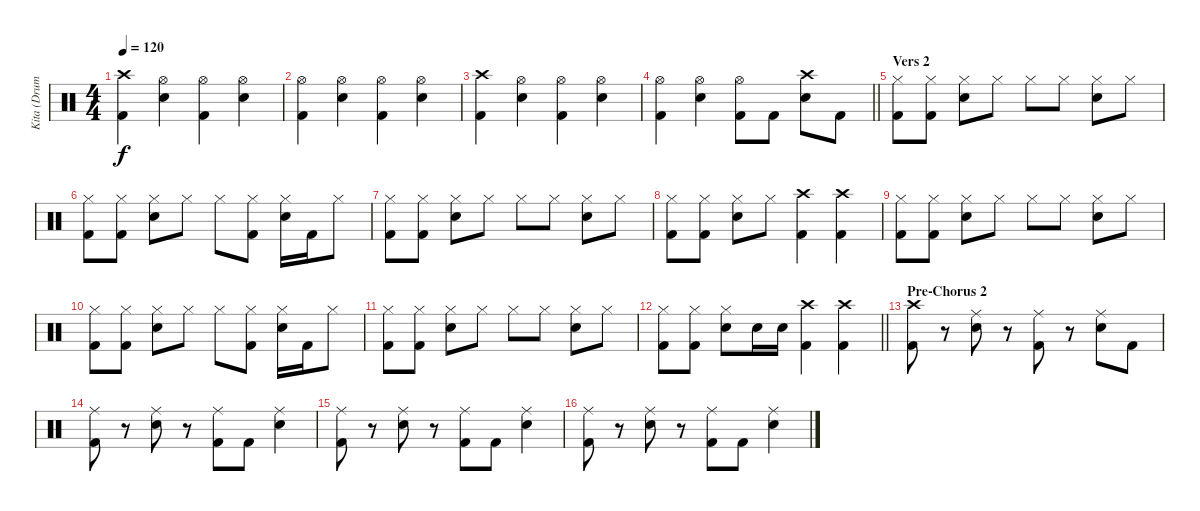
\track ("Kita (Drums)" "Kita (Drum") {instrument percussion}
\staff {score}
\articulation defaults
\ts (4 4)
\tempo 120
\clef neutral
\ks c
("Crash high (hit)" "Kick (hit) 2").4{dy f} ("Hi-Hat (open)" "Snare (hit) 2").4 ("Hi-Hat (open)" "Kick (hit) 2").4 ("Hi-Hat (open)" "Snare (hit) 2").4 |
("Hi-Hat (open)" "Kick (hit) 2").4 ("Hi-Hat (open)" "Snare (hit) 2").4 ("Hi-Hat (open)" "Kick (hit) 2").4 ("Hi-Hat (open)" "Snare (hit) 2").4 |
("Crash high (hit)" "Kick (hit) 2").4 ("Hi-Hat (open)" "Snare (hit) 2").4 ("Hi-Hat (open)" "Kick (hit) 2").4 ("Hi-Hat (open)" "Snare (hit) 2").4 |
\barLineRight lightlight
("Hi-Hat (open)" "Kick (hit) 2").4 ("Hi-Hat (open)" "Snare (hit) 2").4 ("Hi-Hat (open)" "Kick (hit) 2").8 "Kick (hit) 2".8 ("Snare (hit) 2" "Crash high (hit)").8 "Kick (hit) 2".8 |
\section ("" "Vers 2")
("Hi-Hat (closed)" "Kick (hit) 2").8 ("Hi-Hat (closed)" "Kick (hit) 2").8 ("Hi-Hat (closed)" "Snare (hit) 2").8 "Hi-Hat (closed)".8 "Hi-Hat (closed)".8 "Hi-Hat (closed)".8 ("Hi-Hat (closed)" "Snare (hit) 2").8 "Hi-Hat (closed)".8 |
("Hi-Hat (closed)" "Kick (hit) 2").8 ("Hi-Hat (closed)" "Kick (hit) 2").8 ("Hi-Hat (closed)" "Snare (hit) 2").8 "Hi-Hat (closed)".8 "Hi-Hat (closed)".8 ("Hi-Hat (closed)" "Kick (hit) 2").8 ("Hi-Hat (closed)" "Snare (hit) 2").16 "Kick (hit) 2".16 "Hi-Hat (closed)".8 |
("Hi-Hat (closed)" "Kick (hit) 2").8 ("Hi-Hat (closed)" "Kick (hit) 2").8 ("Hi-Hat (closed)" "Snare (hit) 2").8 "Hi-Hat (closed)".8 "Hi-Hat (closed)".8 "Hi-Hat (closed)".8 ("Hi-Hat (closed)" "Snare (hit) 2").8 "Hi-Hat (closed)".8 |
("Hi-Hat (closed)" "Kick (hit) 2").8 ("Hi-Hat (closed)" "Kick (hit) 2").8 ("Hi-Hat (closed)" "Snare (hit) 2").8 "Hi-Hat (closed)".8 ("Kick (hit) 2" "Crash high (hit)").4 ("Kick (hit) 2" "Crash high (hit)").4 |
("Hi-Hat (closed)" "Kick (hit) 2").8 ("Hi-Hat (closed)" "Kick (hit) 2").8 ("Hi-Hat (closed)" "Snare (hit) 2").8 "Hi-Hat (closed)".8 "Hi-Hat (closed)".8 "Hi-Hat (closed)".8 ("Hi-Hat (closed)" "Snare (hit) 2").8 "Hi-Hat (closed)".8 |
("Hi-Hat (closed)" "Kick (hit) 2").8 ("Hi-Hat (closed)" "Kick (hit) 2").8 ("Hi-Hat (closed)" "Snare (hit) 2").8 "Hi-Hat (closed)".8 "Hi-Hat (closed)".8 ("Hi-Hat (closed)" "Kick (hit) 2").8 ("Hi-Hat (closed)" "Snare (hit) 2").16 "Kick (hit) 2".16 "Hi-Hat (closed)".8 |
("Hi-Hat (closed)" "Kick (hit) 2").8 ("Hi-Hat (closed)" "Kick (hit) 2").8 ("Hi-Hat (closed)" "Snare (hit) 2").8 "Hi-Hat (closed)".8 "Hi-Hat (closed)".8 "Hi-Hat (closed)".8 ("Hi-Hat (closed)" "Snare (hit) 2").8 "Hi-Hat (closed)".8 |
\barLineRight lightlight
("Hi-Hat (closed)" "Kick (hit) 2").8 ("Hi-Hat (closed)" "Kick (hit) 2").8 ("Hi-Hat (closed)" "Snare (hit) 2").8 "Snare (hit) 2".16 "Snare (hit) 2".16 ("Kick (hit) 2" "Crash high (hit)").4 ("Kick (hit) 2" "Crash high (hit)").4 |
\section ("" "Pre-Chorus 2")
("Crash high (hit)" "Kick (hit) 2").8 r.8 ("Ride (middle)" "Snare (hit) 2").8 r.8 ("Ride (middle)" "Kick (hit) 2").8 r.8 ("Ride (middle)" "Snare (hit) 2").8 "Kick (hit) 2".8 |
("Ride (middle)" "Kick (hit) 2").8 r.8 ("Ride (middle)" "Snare (hit) 2").8 r.8 ("Ride (middle)" "Kick (hit) 2").8 "Kick (hit) 2".8 ("Ride (middle)" "Snare (hit) 2").4 |
("Ride (middle)" "Kick (hit) 2").8 r.8 ("Ride (middle)" "Snare (hit) 2").8 r.8 ("Ride (middle)" "Kick (hit) 2").8 "Kick (hit) 2".8 ("Ride (middle)" "Snare (hit) 2").4 |
("Ride (middle)" "Kick (hit) 2").8 r.8 ("Ride (middle)" "Snare (hit) 2").8 r.8 ("Ride (middle)" "Kick (hit) 2").8 "Kick (hit) 2".8 ("Ride (middle)" "Snare (hit) 2").4
